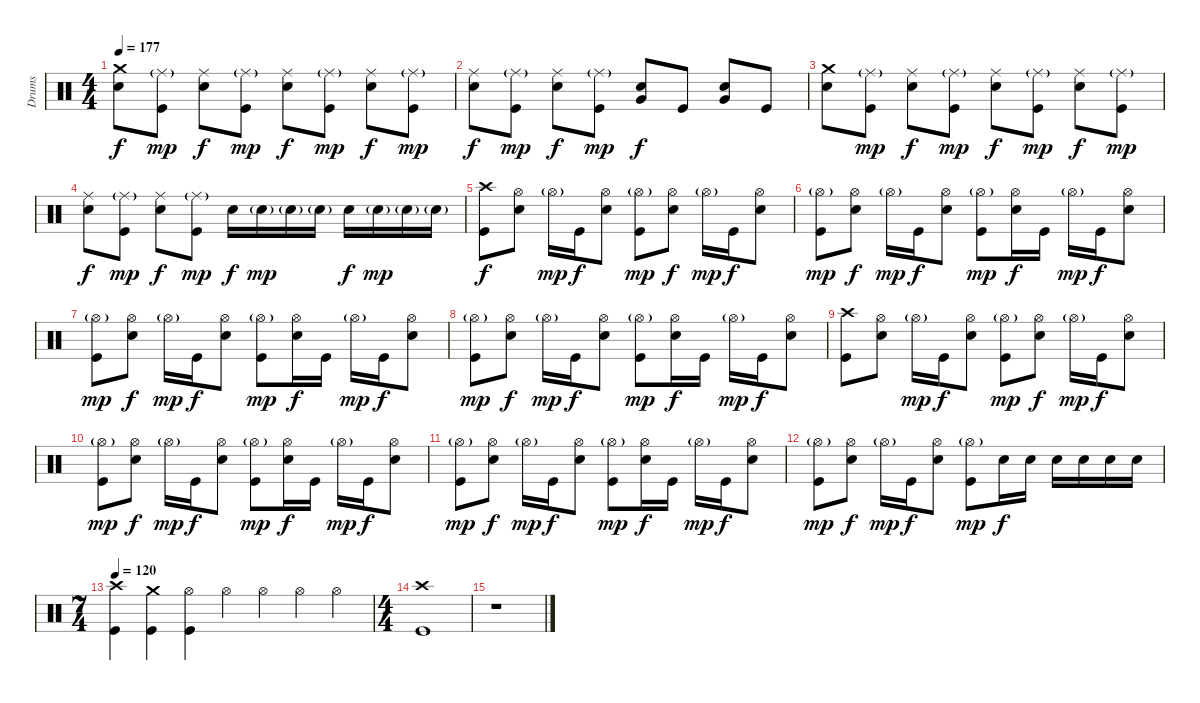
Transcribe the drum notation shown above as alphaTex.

\track ("Drums" "Drums") {instrument percussion}
\staff {score}
\articulation defaults
\ts (4 4)
\tempo 177
\clef neutral
\ks c
("Crash medium (hit)" "Electric Snare (hit)").8{dy f} ("Ride (middle)"{g} "Kick (hit)").8{dy mp} ("Ride (middle)" "Electric Snare (hit)").8{dy f} ("Ride (middle)"{g} "Kick (hit)").8{dy mp} ("Ride (middle)" "Electric Snare (hit)").8{dy f} ("Ride (middle)"{g} "Kick (hit)").8{dy mp} ("Ride (middle)" "Electric Snare (hit)").8{dy f} ("Ride (middle)"{g} "Kick (hit)").8{dy mp} |
("Ride (middle)" "Electric Snare (hit)").8{dy f} ("Ride (middle)"{g} "Kick (hit)").8{dy mp} ("Ride (middle)" "Electric Snare (hit)").8{dy f} ("Ride (middle)"{g} "Kick (hit)").8{dy mp} ("Very Low Tom (hit)" "Electric Snare (hit)").8{dy f} "Kick (hit)".8 ("Very Low Tom (hit)" "Electric Snare (hit)").8 "Kick (hit)".8 |
("Crash medium (hit)" "Electric Snare (hit)").8 ("Ride (middle)"{g} "Kick (hit)").8{dy mp} ("Ride (middle)" "Electric Snare (hit)").8{dy f} ("Ride (middle)"{g} "Kick (hit)").8{dy mp} ("Ride (middle)" "Electric Snare (hit)").8{dy f} ("Ride (middle)"{g} "Kick (hit)").8{dy mp} ("Ride (middle)" "Electric Snare (hit)").8{dy f} ("Ride (middle)"{g} "Kick (hit)").8{dy mp} |
("Ride (middle)" "Electric Snare (hit)").8{dy f} ("Ride (middle)"{g} "Kick (hit)").8{dy mp} ("Ride (middle)" "Electric Snare (hit)").8{dy f} ("Ride (middle)"{g} "Kick (hit)").8{dy mp} "Electric Snare (hit)".16{dy f} "Electric Snare (hit)"{g}.16{dy mp} "Electric Snare (hit)"{g}.16 "Electric Snare (hit)"{g}.16 "Electric Snare (hit)".16{dy f} "Electric Snare (hit)"{g}.16{dy mp} "Electric Snare (hit)"{g}.16 "Electric Snare (hit)"{g}.16 |
("Crash high (hit)" "Kick (hit)").8{dy f} ("Hi-Hat (open)" "Electric Snare (hit)").8 "Hi-Hat (open)"{g}.16{dy mp} "Kick (hit)".16{dy f} ("Hi-Hat (open)" "Electric Snare (hit)").8 ("Hi-Hat (open)"{g} "Kick (hit)").8{dy mp} ("Hi-Hat (open)" "Electric Snare (hit)").8{dy f} "Hi-Hat (open)"{g}.16{dy mp} "Kick (hit)".16{dy f} ("Hi-Hat (open)" "Electric Snare (hit)").8 |
("Hi-Hat (open)"{g} "Kick (hit)").8{dy mp} ("Hi-Hat (open)" "Electric Snare (hit)").8{dy f} "Hi-Hat (open)"{g}.16{dy mp} "Kick (hit)".16{dy f} ("Hi-Hat (open)" "Electric Snare (hit)").8 ("Hi-Hat (open)"{g} "Kick (hit)").8{dy mp} ("Hi-Hat (open)" "Electric Snare (hit)").16{dy f} "Kick (hit)".16 "Hi-Hat (open)"{g}.16{dy mp} "Kick (hit)".16{dy f} ("Hi-Hat (open)" "Electric Snare (hit)").8 |
("Hi-Hat (open)"{g} "Kick (hit)").8{dy mp} ("Hi-Hat (open)" "Electric Snare (hit)").8{dy f} "Hi-Hat (open)"{g}.16{dy mp} "Kick (hit)".16{dy f} ("Hi-Hat (open)" "Electric Snare (hit)").8 ("Hi-Hat (open)"{g} "Kick (hit)").8{dy mp} ("Hi-Hat (open)" "Electric Snare (hit)").16{dy f} "Kick (hit)".16 "Hi-Hat (open)"{g}.16{dy mp} "Kick (hit)".16{dy f} ("Hi-Hat (open)" "Electric Snare (hit)").8 |
("Hi-Hat (open)"{g} "Kick (hit)").8{dy mp} ("Hi-Hat (open)" "Electric Snare (hit)").8{dy f} "Hi-Hat (open)"{g}.16{dy mp} "Kick (hit)".16{dy f} ("Hi-Hat (open)" "Electric Snare (hit)").8 ("Hi-Hat (open)"{g} "Kick (hit)").8{dy mp} ("Hi-Hat (open)" "Electric Snare (hit)").16{dy f} "Kick (hit)".16 "Hi-Hat (open)"{g}.16{dy mp} "Kick (hit)".16{dy f} ("Hi-Hat (open)" "Electric Snare (hit)").8 |
("Crash high (hit)" "Kick (hit)").8 ("Hi-Hat (open)" "Electric Snare (hit)").8 "Hi-Hat (open)"{g}.16{dy mp} "Kick (hit)".16{dy f} ("Hi-Hat (open)" "Electric Snare (hit)").8 ("Hi-Hat (open)"{g} "Kick (hit)").8{dy mp} ("Hi-Hat (open)" "Electric Snare (hit)").8{dy f} "Hi-Hat (open)"{g}.16{dy mp} "Kick (hit)".16{dy f} ("Hi-Hat (open)" "Electric Snare (hit)").8 |
("Hi-Hat (open)"{g} "Kick (hit)").8{dy mp} ("Hi-Hat (open)" "Electric Snare (hit)").8{dy f} "Hi-Hat (open)"{g}.16{dy mp} "Kick (hit)".16{dy f} ("Hi-Hat (open)" "Electric Snare (hit)").8 ("Hi-Hat (open)"{g} "Kick (hit)").8{dy mp} ("Hi-Hat (open)" "Electric Snare (hit)").16{dy f} "Kick (hit)".16 "Hi-Hat (open)"{g}.16{dy mp} "Kick (hit)".16{dy f} ("Hi-Hat (open)" "Electric Snare (hit)").8 |
("Hi-Hat (open)"{g} "Kick (hit)").8{dy mp} ("Hi-Hat (open)" "Electric Snare (hit)").8{dy f} "Hi-Hat (open)"{g}.16{dy mp} "Kick (hit)".16{dy f} ("Hi-Hat (open)" "Electric Snare (hit)").8 ("Hi-Hat (open)"{g} "Kick (hit)").8{dy mp} ("Hi-Hat (open)" "Electric Snare (hit)").16{dy f} "Kick (hit)".16 "Hi-Hat (open)"{g}.16{dy mp} "Kick (hit)".16{dy f} ("Hi-Hat (open)" "Electric Snare (hit)").8 |
("Hi-Hat (open)"{g} "Kick (hit)").8{dy mp} ("Hi-Hat (open)" "Electric Snare (hit)").8{dy f} "Hi-Hat (open)"{g}.16{dy mp} "Kick (hit)".16{dy f} ("Hi-Hat (open)" "Electric Snare (hit)").8 ("Hi-Hat (open)"{g} "Kick (hit)").8{dy mp} "Electric Snare (hit)".16{dy f} "Electric Snare (hit)".16 "Electric Snare (hit)".16 "Electric Snare (hit)".16 "Electric Snare (hit)".16 "Electric Snare (hit)".16 |
\ts (7 4)
\tempo 120
("Crash high (hit)" "Kick (hit)").4 ("Crash medium (hit)" "Kick (hit)").4 ("Hi-Hat (open)" "Kick (hit)").4 "Hi-Hat (open)".4 "Hi-Hat (open)".4 "Hi-Hat (open)".4 "Hi-Hat (open)".4 |
\ts (4 4)
("Crash high (hit)" "Kick (hit)").1 |
r.1
